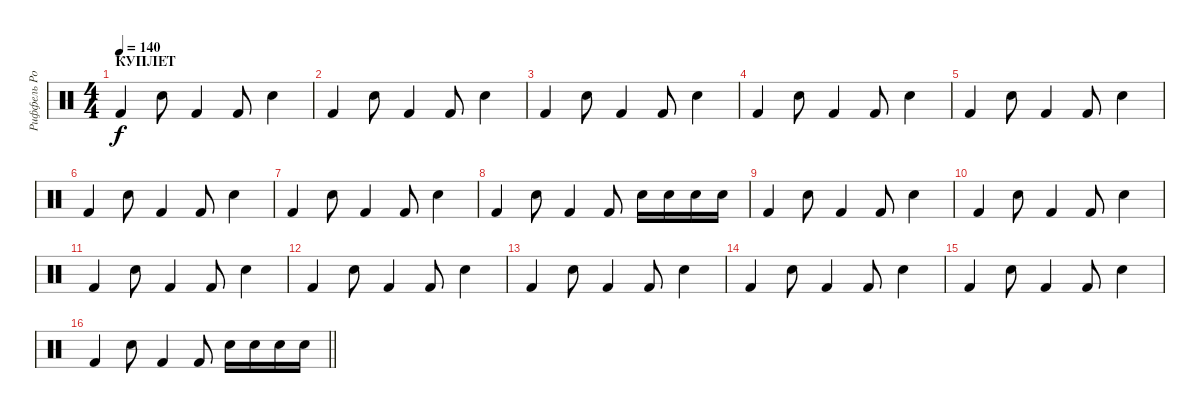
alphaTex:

\track ("Риффель Роман(главные)" "Риффель Ро") {instrument percussion}
\staff {score}
\articulation defaults
\ts (4 4)
\section ("" "КУПЛЕТ ")
\tempo 140
\clef neutral
\ks c "Kick (hit) 2".4{dy f} "Electric Snare (hit)".8 "Kick (hit) 2".4 "Kick (hit) 2".8 "Electric Snare (hit)".4
|
"Kick (hit) 2".4 "Electric Snare (hit)".8 "Kick (hit) 2".4 "Kick (hit) 2".8 "Electric Snare (hit)".4 |
"Kick (hit) 2".4 "Electric Snare (hit)".8 "Kick (hit) 2".4 "Kick (hit) 2".8 "Electric Snare (hit)".4 |
"Kick (hit) 2".4 "Electric Snare (hit)".8 "Kick (hit) 2".4 "Kick (hit) 2".8 "Electric Snare (hit)".4 |
"Kick (hit) 2".4 "Electric Snare (hit)".8 "Kick (hit) 2".4 "Kick (hit) 2".8 "Electric Snare (hit)".4 |
"Kick (hit) 2".4 "Electric Snare (hit)".8 "Kick (hit) 2".4 "Kick (hit) 2".8 "Electric Snare (hit)".4 |
"Kick (hit) 2".4 "Electric Snare (hit)".8 "Kick (hit) 2".4 "Kick (hit) 2".8 "Electric Snare (hit)".4 |
"Kick (hit) 2".4 "Electric Snare (hit)".8 "Kick (hit) 2".4 "Kick (hit) 2".8 "Electric Snare (hit)".16 "Electric Snare (hit)".16 "Electric Snare (hit)".16 "Electric Snare (hit)".16 |
"Kick (hit) 2".4 "Electric Snare (hit)".8 "Kick (hit) 2".4 "Kick (hit) 2".8 "Electric Snare (hit)".4 |
"Kick (hit) 2".4 "Electric Snare (hit)".8 "Kick (hit) 2".4 "Kick (hit) 2".8 "Electric Snare (hit)".4 |
"Kick (hit) 2".4 "Electric Snare (hit)".8 "Kick (hit) 2".4 "Kick (hit) 2".8 "Electric Snare (hit)".4 |
"Kick (hit) 2".4 "Electric Snare (hit)".8 "Kick (hit) 2".4 "Kick (hit) 2".8 "Electric Snare (hit)".4 |
"Kick (hit) 2".4 "Electric Snare (hit)".8 "Kick (hit) 2".4 "Kick (hit) 2".8 "Electric Snare (hit)".4 |
"Kick (hit) 2".4 "Electric Snare (hit)".8 "Kick (hit) 2".4 "Kick (hit) 2".8 "Electric Snare (hit)".4 |
"Kick (hit) 2".4 "Electric Snare (hit)".8 "Kick (hit) 2".4 "Kick (hit) 2".8 "Electric Snare (hit)".4 |
\barLineRight lightlight "Kick (hit) 2".4 "Electric Snare (hit)".8 "Kick (hit) 2".4 "Kick (hit) 2".8 "Electric Snare (hit)".16 "Electric Snare (hit)".16 "Electric Snare (hit)".16 "Electric Snare (hit)".16
